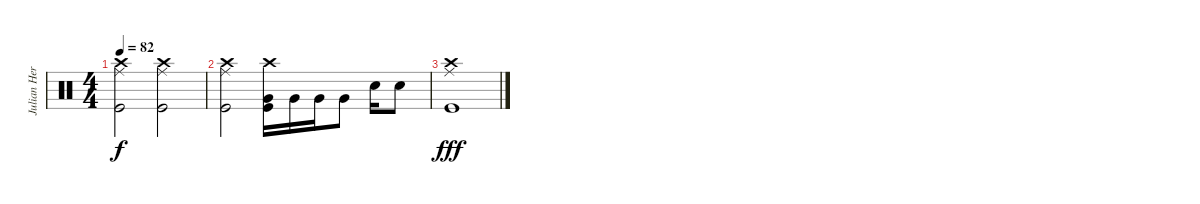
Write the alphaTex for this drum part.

\track ("Julian Hernandez - Batería" "Julian Her") {instrument percussion}
\staff {score}
\articulation defaults
\ts (4 4)
\tempo 82
\clef neutral
\ks c
("Ride (middle)" "Crash high (hit)" "Kick (hit)").2{dy f} ("Ride (middle)" "Crash high (hit)" "Kick (hit)").2 |
("Ride (middle)" "Crash high (hit)" "Kick (hit)").2 ("Crash high (hit)" "Very Low Tom (hit)" "Kick (hit)").16 "Very Low Tom (hit)".16 "Very Low Tom (hit)".16 "Very Low Tom (hit)".8 "Snare (hit) 2".16 "Snare (hit) 2".8 |
("Crash high (hit)" "Ride (middle)" "Kick (hit)").1{dy fff}
